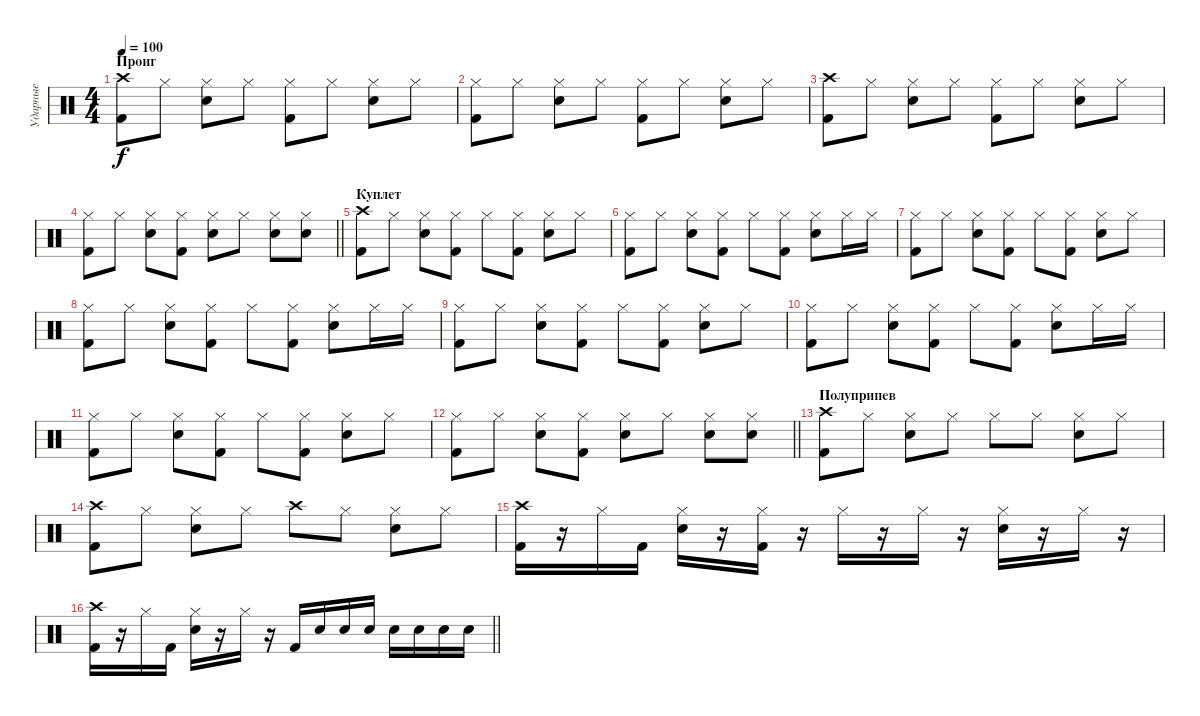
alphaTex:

\track ("Ударные" "Ударные") {instrument percussion}
\staff {score}
\articulation defaults
\ts (4 4)
\section ("" "Проиг")
\tempo 100
\clef neutral
\ks c
("Crash high (hit)" "Kick (hit) 2").8{dy f} "Hi-Hat (closed)".8 ("Hi-Hat (closed)" "Electric Snare (hit)").8 "Hi-Hat (closed)".8 ("Hi-Hat (closed)" "Kick (hit) 2").8 "Hi-Hat (closed)".8 ("Hi-Hat (closed)" "Electric Snare (hit)").8 "Hi-Hat (closed)".8 |
("Hi-Hat (closed)" "Kick (hit) 2").8 "Hi-Hat (closed)".8 ("Hi-Hat (closed)" "Electric Snare (hit)").8 "Hi-Hat (closed)".8 ("Hi-Hat (closed)" "Kick (hit) 2").8 "Hi-Hat (closed)".8 ("Hi-Hat (closed)" "Electric Snare (hit)").8 "Hi-Hat (closed)".8 |
("Crash high (hit)" "Kick (hit) 2").8 "Hi-Hat (closed)".8 ("Hi-Hat (closed)" "Electric Snare (hit)").8 "Hi-Hat (closed)".8 ("Hi-Hat (closed)" "Kick (hit) 2").8 "Hi-Hat (closed)".8 ("Hi-Hat (closed)" "Electric Snare (hit)").8 "Hi-Hat (closed)".8 |
\barLineRight lightlight
("Hi-Hat (closed)" "Kick (hit) 2").8 "Hi-Hat (closed)".8 ("Hi-Hat (closed)" "Electric Snare (hit)").8 ("Hi-Hat (closed)" "Kick (hit) 2").8 ("Hi-Hat (closed)" "Electric Snare (hit)").8 "Hi-Hat (closed)".8 ("Hi-Hat (closed)" "Electric Snare (hit)").8 ("Hi-Hat (closed)" "Electric Snare (hit)").8 |
\section ("" "Куплет")
("Crash high (hit)" "Kick (hit) 2").8 "Hi-Hat (closed)".8 ("Hi-Hat (closed)" "Electric Snare (hit)").8 ("Hi-Hat (closed)" "Kick (hit) 2").8 "Hi-Hat (closed)".8 ("Hi-Hat (closed)" "Kick (hit) 2").8 ("Hi-Hat (closed)" "Electric Snare (hit)").8 "Hi-Hat (closed)".8 |
("Hi-Hat (closed)" "Kick (hit) 2").8 "Hi-Hat (closed)".8 ("Hi-Hat (closed)" "Electric Snare (hit)").8 ("Hi-Hat (closed)" "Kick (hit) 2").8 "Hi-Hat (closed)".8 ("Hi-Hat (closed)" "Kick (hit) 2").8 ("Hi-Hat (closed)" "Electric Snare (hit)").8 "Hi-Hat (closed)".16 "Hi-Hat (closed)".16 |
("Hi-Hat (closed)" "Kick (hit) 2").8 "Hi-Hat (closed)".8 ("Hi-Hat (closed)" "Electric Snare (hit)").8 ("Hi-Hat (closed)" "Kick (hit) 2").8 "Hi-Hat (closed)".8 ("Hi-Hat (closed)" "Kick (hit) 2").8 ("Hi-Hat (closed)" "Electric Snare (hit)").8 "Hi-Hat (closed)".8 |
("Hi-Hat (closed)" "Kick (hit) 2").8 "Hi-Hat (closed)".8 ("Hi-Hat (closed)" "Electric Snare (hit)").8 ("Hi-Hat (closed)" "Kick (hit) 2").8 "Hi-Hat (closed)".8 ("Hi-Hat (closed)" "Kick (hit) 2").8 ("Hi-Hat (closed)" "Electric Snare (hit)").8 "Hi-Hat (closed)".16 "Hi-Hat (closed)".16 |
("Hi-Hat (closed)" "Kick (hit) 2").8 "Hi-Hat (closed)".8 ("Hi-Hat (closed)" "Electric Snare (hit)").8 ("Hi-Hat (closed)" "Kick (hit) 2").8 "Hi-Hat (closed)".8 ("Hi-Hat (closed)" "Kick (hit) 2").8 ("Hi-Hat (closed)" "Electric Snare (hit)").8 "Hi-Hat (closed)".8 |
("Hi-Hat (closed)" "Kick (hit) 2").8 "Hi-Hat (closed)".8 ("Hi-Hat (closed)" "Electric Snare (hit)").8 ("Hi-Hat (closed)" "Kick (hit) 2").8 "Hi-Hat (closed)".8 ("Hi-Hat (closed)" "Kick (hit) 2").8 ("Hi-Hat (closed)" "Electric Snare (hit)").8 "Hi-Hat (closed)".16 "Hi-Hat (closed)".16 |
("Hi-Hat (closed)" "Kick (hit) 2").8 "Hi-Hat (closed)".8 ("Hi-Hat (closed)" "Electric Snare (hit)").8 ("Hi-Hat (closed)" "Kick (hit) 2").8 "Hi-Hat (closed)".8 ("Hi-Hat (closed)" "Kick (hit) 2").8 ("Hi-Hat (closed)" "Electric Snare (hit)").8 "Hi-Hat (closed)".8 |
\barLineRight lightlight
("Hi-Hat (closed)" "Kick (hit) 2").8 "Hi-Hat (closed)".8 ("Hi-Hat (closed)" "Electric Snare (hit)").8 ("Hi-Hat (closed)" "Kick (hit) 2").8 ("Hi-Hat (closed)" "Electric Snare (hit)").8 "Hi-Hat (closed)".8 ("Hi-Hat (closed)" "Electric Snare (hit)").8 ("Hi-Hat (closed)" "Electric Snare (hit)").8 |
\section ("" "Полуприпев")
("Crash high (hit)" "Kick (hit) 2").8 "Hi-Hat (closed)".8 ("Hi-Hat (closed)" "Electric Snare (hit)").8 "Hi-Hat (closed)".8 "Hi-Hat (closed)".8 "Hi-Hat (closed)".8 ("Hi-Hat (closed)" "Electric Snare (hit)").8 "Hi-Hat (closed)".8 |
("Crash high (hit)" "Kick (hit) 2").8 "Hi-Hat (closed)".8 ("Hi-Hat (closed)" "Electric Snare (hit)").8 "Hi-Hat (closed)".8 "Crash high (hit)".8 "Hi-Hat (closed)".8 ("Hi-Hat (closed)" "Electric Snare (hit)").8 "Hi-Hat (closed)".8 |
("Crash high (hit)" "Kick (hit) 2").16 r.16 "Hi-Hat (closed)".16 "Kick (hit) 2".16 ("Hi-Hat (closed)" "Electric Snare (hit)").16 r.16 ("Hi-Hat (closed)" "Kick (hit) 2").16 r.16 "Hi-Hat (closed)".16 r.16 "Hi-Hat (closed)".16 r.16 ("Hi-Hat (closed)" "Electric Snare (hit)").16 r.16 "Hi-Hat (closed)".16 r.16 |
\barLineRight lightlight
("Crash high (hit)" "Kick (hit) 2").16 r.16 "Hi-Hat (closed)".16 "Kick (hit) 2".16 ("Hi-Hat (closed)" "Electric Snare (hit)").16 r.16 "Hi-Hat (closed)".16 r.16 "Kick (hit) 2".16 "Electric Snare (hit)".16 "Electric Snare (hit)".16 "Electric Snare (hit)".16 "Electric Snare (hit)".16 "Electric Snare (hit)".16 "Electric Snare (hit)".16 "Electric Snare (hit)".16
